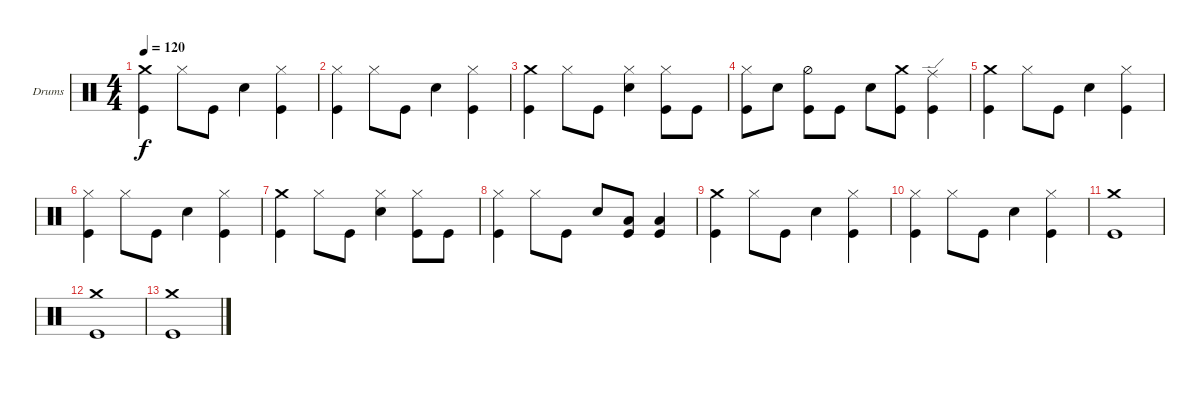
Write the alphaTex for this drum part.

\bracketExtendMode groupsimilarinstruments
\firstSystemTrackNameOrientation horizontal
\otherSystemsTrackNameOrientation horizontal
\track ("Drumkit" "Drums") {instrument percussion}
\staff {score}
\articulation defaults
\ts (4 4)
\tempo 120
\clef neutral
\scale
0.333333
\ks c
("Kick (hit)" "Crash medium (hit)").4{dy f} "Hi-Hat (closed)".8 "Kick (hit)".8 "Snare (hit) 2".4 ("Hi-Hat (closed)" "Kick (hit)").4 |
\scale
0.333333 ("Kick (hit)" "Hi-Hat (closed)").4 "Hi-Hat (closed)".8 "Kick (hit)".8 "Snare (hit) 2".4 ("Kick (hit)" "Hi-Hat (closed)").4 |
\scale
0.333333 ("Kick (hit)" "Crash medium (hit)").4 "Hi-Hat (closed)".8 "Kick (hit)".8 ("Snare (hit) 2" "Hi-Hat (closed)").4 ("Hi-Hat (closed)" "Kick (hit)").8 "Kick (hit)".8 |
\scale
0.333333 ("Kick (hit)" "Hi-Hat (closed)").8 "Snare (hit) 2".8 ("Kick (hit)" "Hi-Hat (half)").8 "Kick (hit)".8 "Snare (hit) 2".8 ("Kick (hit)" "Crash medium (hit)").8 ("Kick (hit)" "Ride (edge)").4 |
\scale
0.333333 ("Kick (hit)" "Crash medium (hit)").4 "Hi-Hat (closed)".8 "Kick (hit)".8 "Snare (hit) 2".4 ("Hi-Hat (closed)" "Kick (hit)").4 |
\scale
0.333333 ("Kick (hit)" "Hi-Hat (closed)").4 "Hi-Hat (closed)".8 "Kick (hit)".8 "Snare (hit) 2".4 ("Kick (hit)" "Hi-Hat (closed)").4 |
\scale
0.333333 ("Kick (hit)" "Crash medium (hit)").4 "Hi-Hat (closed)".8 "Kick (hit)".8 ("Snare (hit) 2" "Hi-Hat (closed)").4 ("Hi-Hat (closed)" "Kick (hit)").8 "Kick (hit)".8 |
\scale
0.333333 ("Kick (hit)" "Hi-Hat (closed)").4 "Hi-Hat (closed)".8 "Kick (hit)".8 "Snare (hit) 2".8 ("Kick (hit)" "Low Tom (hit)").8 ("Kick (hit)" "Low Tom (hit)").4 |
\scale
0.333333 ("Kick (hit)" "Crash medium (hit)").4 "Hi-Hat (closed)".8 "Kick (hit)".8 "Snare (hit) 2".4 ("Hi-Hat (closed)" "Kick (hit)").4 |
\scale
0.333333 ("Kick (hit)" "Hi-Hat (closed)").4 "Hi-Hat (closed)".8 "Kick (hit)".8 "Snare (hit) 2".4 ("Kick (hit)" "Hi-Hat (closed)").4 |
\scale
0.333333 ("Kick (hit)" "Crash medium (hit)").1 |
\scale
0.333333 ("Kick (hit)" "Crash medium (hit)").1 |
\scale
0.333333 ("Kick (hit)" "Crash medium (hit)").1 |
\scale
0.333333 |
\scale
0.333333 |
\scale
0.333333
